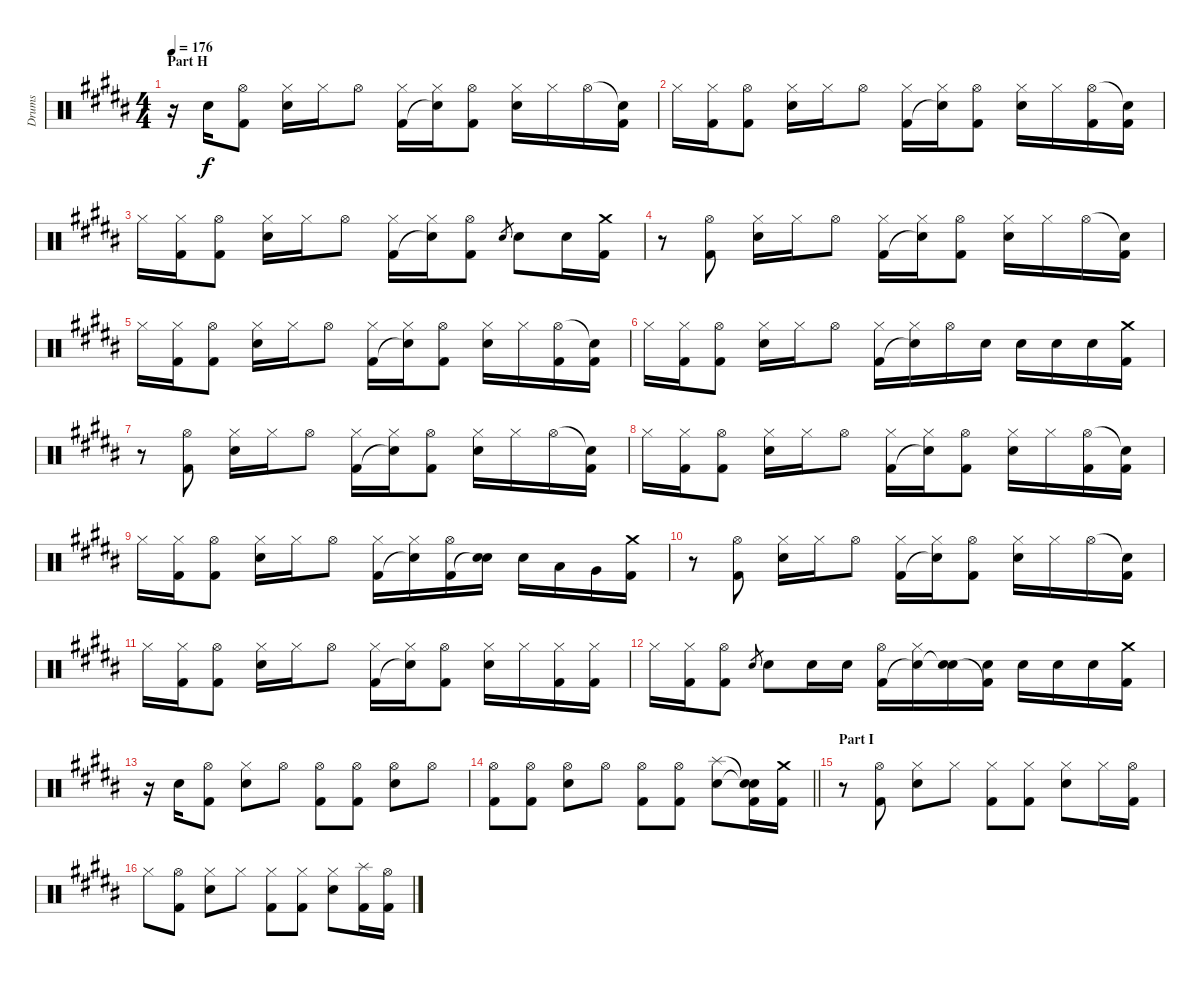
\track ("Drums" "Drums") {instrument percussion}
\staff {score}
\articulation defaults
\ts (4 4)
\section ("" "Part H")
\tempo 176
\clef neutral
\ks b
r.16{dy f} "Electric Snare (hit)".16 ("Hi-Hat (open)" "Kick (hit) 2").8 ("Hi-Hat (closed)" "Electric Snare (hit)").16 "Hi-Hat (closed)".16 "Hi-Hat (open)".8 ("Hi-Hat (closed)" "Kick (hit) 2").16 ("Hi-Hat (closed)" "Snare (hit)"{t}).16 ("Hi-Hat (open)" "Kick (hit) 2").8 ("Hi-Hat (closed)" "Electric Snare (hit)").16 "Hi-Hat (closed)".16 "Hi-Hat (open)".16 ("Snare (hit)"{t} "Kick (hit) 2").16 |
"Hi-Hat (closed)".16 ("Hi-Hat (closed)" "Kick (hit) 2").16 ("Hi-Hat (open)" "Kick (hit) 2").8 ("Hi-Hat (closed)" "Electric Snare (hit)").16 "Hi-Hat (closed)".16 "Hi-Hat (open)".8 ("Hi-Hat (closed)" "Kick (hit) 2").16 ("Hi-Hat (closed)" "Snare (hit)"{t}).16 ("Hi-Hat (open)" "Kick (hit) 2").8 ("Hi-Hat (closed)" "Electric Snare (hit)").16 "Hi-Hat (closed)".16 ("Hi-Hat (open)" "Kick (hit) 2").16 ("Snare (hit)"{t} "Kick (hit) 2").16 |
"Hi-Hat (closed)".16 ("Hi-Hat (closed)" "Kick (hit) 2").16 ("Hi-Hat (open)" "Kick (hit) 2").8 ("Hi-Hat (closed)" "Electric Snare (hit)").16 "Hi-Hat (closed)".16 "Hi-Hat (open)".8 ("Hi-Hat (closed)" "Kick (hit) 2").16 ("Hi-Hat (closed)" "Snare (hit)"{t}).16 ("Hi-Hat (open)" "Kick (hit) 2").8 "Electric Snare (hit)".8{gr} "Electric Snare (hit)".8 "Electric Snare (hit)".16 ("Crash medium (hit)" "Kick (hit) 2").16 |
r.8 ("Hi-Hat (open)" "Kick (hit) 2").8 ("Hi-Hat (closed)" "Electric Snare (hit)").16 "Hi-Hat (closed)".16 "Hi-Hat (open)".8 ("Hi-Hat (closed)" "Kick (hit) 2").16 ("Hi-Hat (closed)" "Snare (hit)"{t}).16 ("Hi-Hat (open)" "Kick (hit) 2").8 ("Hi-Hat (closed)" "Electric Snare (hit)").16 "Hi-Hat (closed)".16 "Hi-Hat (open)".16 ("Snare (hit)"{t} "Kick (hit) 2").16 |
"Hi-Hat (closed)".16 ("Hi-Hat (closed)" "Kick (hit) 2").16 ("Hi-Hat (open)" "Kick (hit) 2").8 ("Hi-Hat (closed)" "Electric Snare (hit)").16 "Hi-Hat (closed)".16 "Hi-Hat (open)".8 ("Hi-Hat (closed)" "Kick (hit) 2").16 ("Hi-Hat (closed)" "Snare (hit)"{t}).16 ("Hi-Hat (open)" "Kick (hit) 2").8 ("Hi-Hat (closed)" "Electric Snare (hit)").16 "Hi-Hat (closed)".16 ("Hi-Hat (open)" "Kick (hit) 2").16 ("Snare (hit)"{t} "Kick (hit) 2").16 |
"Hi-Hat (closed)".16 ("Hi-Hat (closed)" "Kick (hit) 2").16 ("Hi-Hat (open)" "Kick (hit) 2").8 ("Hi-Hat (closed)" "Electric Snare (hit)").16 "Hi-Hat (closed)".16 "Hi-Hat (open)".8 ("Hi-Hat (closed)" "Kick (hit) 2").16 ("Hi-Hat (closed)" "Snare (hit)"{t}).16 "Hi-Hat (open)".16 "Electric Snare (hit)".16 "Electric Snare (hit)".16 "Electric Snare (hit)".16 "Electric Snare (hit)".16 ("Crash medium (hit)" "Kick (hit) 2").16 |
r.8 ("Hi-Hat (open)" "Kick (hit) 2").8 ("Hi-Hat (closed)" "Electric Snare (hit)").16 "Hi-Hat (closed)".16 "Hi-Hat (open)".8 ("Hi-Hat (closed)" "Kick (hit) 2").16 ("Hi-Hat (closed)" "Snare (hit)"{t}).16 ("Hi-Hat (open)" "Kick (hit) 2").8 ("Hi-Hat (closed)" "Electric Snare (hit)").16 "Hi-Hat (closed)".16 "Hi-Hat (open)".16 ("Snare (hit)"{t} "Kick (hit) 2").16 |
"Hi-Hat (closed)".16 ("Hi-Hat (closed)" "Kick (hit) 2").16 ("Hi-Hat (open)" "Kick (hit) 2").8 ("Hi-Hat (closed)" "Electric Snare (hit)").16 "Hi-Hat (closed)".16 "Hi-Hat (open)".8 ("Hi-Hat (closed)" "Kick (hit) 2").16 ("Hi-Hat (closed)" "Snare (hit)"{t}).16 ("Hi-Hat (open)" "Kick (hit) 2").8 ("Hi-Hat (closed)" "Electric Snare (hit)").16 "Hi-Hat (closed)".16 ("Hi-Hat (open)" "Kick (hit) 2").16 ("Snare (hit)"{t} "Kick (hit) 2").16 |
"Hi-Hat (closed)".16 ("Hi-Hat (closed)" "Kick (hit) 2").16 ("Hi-Hat (open)" "Kick (hit) 2").8 ("Hi-Hat (closed)" "Electric Snare (hit)").16 "Hi-Hat (closed)".16 "Hi-Hat (open)".8 ("Hi-Hat (closed)" "Kick (hit) 2").16 ("Hi-Hat (closed)" "Snare (hit)"{t}).16 ("Hi-Hat (open)" "Kick (hit) 2").16 ("Electric Snare (hit)" "Snare (hit)"{t}).16 "Electric Snare (hit)".16 "Low Tom (hit)".16 "Very Low Tom (hit)".16 ("Crash medium (hit)" "Kick (hit) 2").16 |
r.8 ("Hi-Hat (open)" "Kick (hit) 2").8 ("Hi-Hat (closed)" "Electric Snare (hit)").16 "Hi-Hat (closed)".16 "Hi-Hat (open)".8 ("Hi-Hat (closed)" "Kick (hit) 2").16 ("Hi-Hat (closed)" "Snare (hit)"{t}).16 ("Hi-Hat (open)" "Kick (hit) 2").8 ("Hi-Hat (closed)" "Electric Snare (hit)").16 "Hi-Hat (closed)".16 "Hi-Hat (open)".16 ("Snare (hit)"{t} "Kick (hit) 2").16 |
"Hi-Hat (closed)".16 ("Hi-Hat (closed)" "Kick (hit) 2").16 ("Hi-Hat (open)" "Kick (hit) 2").8 ("Hi-Hat (closed)" "Electric Snare (hit)").16 "Hi-Hat (closed)".16 "Hi-Hat (open)".8 ("Hi-Hat (closed)" "Kick (hit) 2").16 ("Hi-Hat (closed)" "Snare (hit)"{t}).16 ("Hi-Hat (open)" "Kick (hit) 2").8 ("Hi-Hat (closed)" "Electric Snare (hit)").16 "Hi-Hat (closed)".16 ("Hi-Hat (closed)" "Kick (hit) 2").16 ("Hi-Hat (closed)" "Kick (hit) 2").16 |
"Hi-Hat (closed)".16 ("Hi-Hat (closed)" "Kick (hit) 2").16 ("Hi-Hat (open)" "Kick (hit) 2").8 "Electric Snare (hit)".8{gr} "Electric Snare (hit)".8 "Electric Snare (hit)".16 "Electric Snare (hit)".16 ("Hi-Hat (open)" "Kick (hit) 2").16 ("Hi-Hat (closed)" "Snare (hit)"{t}).16 ("Electric Snare (hit)" "Snare (hit)"{t}).16 ("Electric Snare (hit)" "Kick (hit) 2"{t}).16 "Electric Snare (hit)".16 "Electric Snare (hit)".16 "Electric Snare (hit)".16 ("Crash medium (hit)" "Kick (hit) 2").16 |
r.16 "Electric Snare (hit)".16 ("Hi-Hat (open)" "Kick (hit) 2").8 ("Hi-Hat (closed)" "Electric Snare (hit)").8 "Hi-Hat (open)".8 ("Hi-Hat (open)" "Kick (hit) 2").8 ("Hi-Hat (open)" "Kick (hit) 2").8 ("Hi-Hat (open)" "Electric Snare (hit)").8 "Hi-Hat (open)".8 |
\barLineRight lightlight
("Hi-Hat (open)" "Kick (hit) 2").8 ("Hi-Hat (open)" "Kick (hit) 2").8 ("Hi-Hat (open)" "Electric Snare (hit)").8 "Hi-Hat (open)".8 ("Hi-Hat (open)" "Kick (hit) 2").8 ("Hi-Hat (open)" "Kick (hit) 2").8 ("Splash (hit)" "Electric Snare (hit)").8 ("Snare (hit)"{t} "Snare (hit)"{t} "Kick (hit) 2").16 ("Crash medium (hit)" "Kick (hit) 2").16 |
\section ("" "Part I")
r.8 ("Hi-Hat (open)" "Kick (hit) 2").8 ("Hi-Hat (closed)" "Electric Snare (hit)").8 "Hi-Hat (closed)".8 ("Hi-Hat (closed)" "Kick (hit) 2").8 ("Hi-Hat (closed)" "Kick (hit) 2").8 ("Hi-Hat (closed)" "Electric Snare (hit)").8 "Hi-Hat (closed)".16 ("Hi-Hat (open)" "Kick (hit) 2").16 |
"Hi-Hat (closed)".8 ("Hi-Hat (open)" "Kick (hit) 2").8 ("Hi-Hat (closed)" "Electric Snare (hit)").8 "Hi-Hat (closed)".8 ("Hi-Hat (closed)" "Kick (hit) 2").8 ("Hi-Hat (closed)" "Kick (hit) 2").8 ("Hi-Hat (closed)" "Electric Snare (hit)").8 ("Splash (hit)" "Kick (hit) 2").16 ("Hi-Hat (open)" "Kick (hit) 2").16
